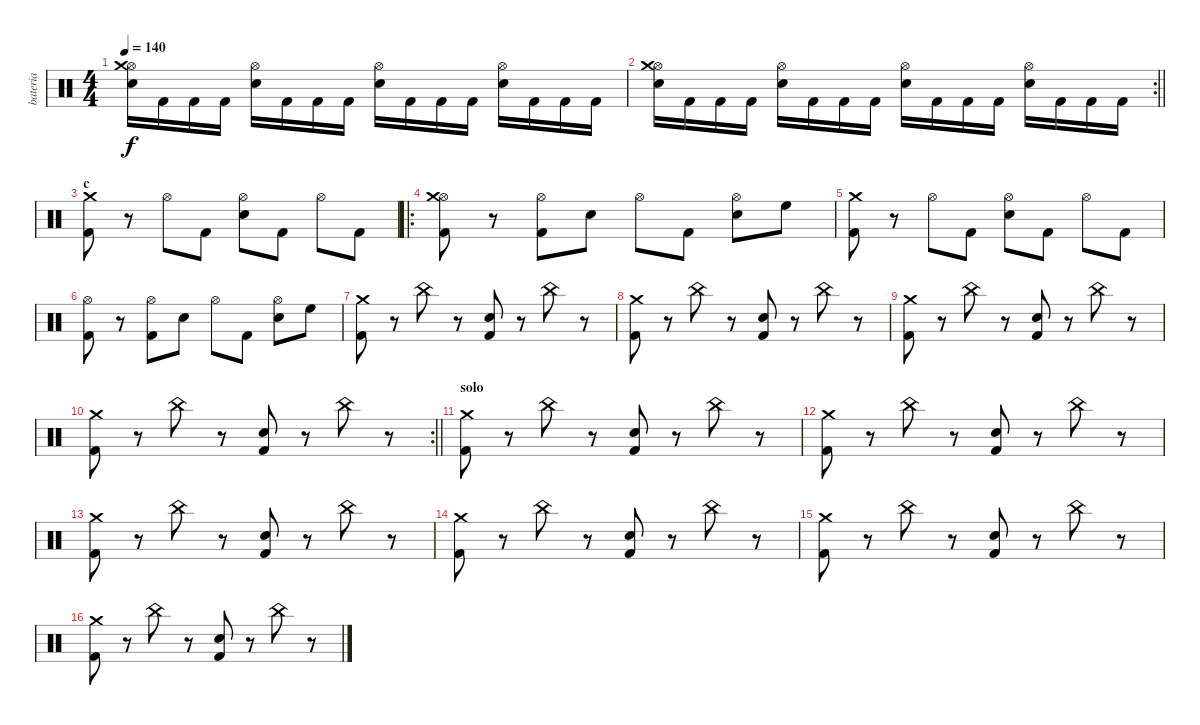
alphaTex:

\track ("bateria" "bateria") {mute instrument percussion}
\staff {score}
\articulation defaults
\ts (4 4)
\tempo 140
\clef neutral
\ks c
("Electric Snare (hit)" "Hi-Hat (open)" "Crash medium (hit)").16{dy f} "Kick (hit) 2".16 "Kick (hit) 2".16 "Kick (hit) 2".16 ("Electric Snare (hit)" "Hi-Hat (open)").16 "Kick (hit) 2".16 "Kick (hit) 2".16 "Kick (hit) 2".16 ("Electric Snare (hit)" "Hi-Hat (open)").16 "Kick (hit) 2".16 "Kick (hit) 2".16 "Kick (hit) 2".16 ("Electric Snare (hit)" "Hi-Hat (open)").16 "Kick (hit) 2".16 "Kick (hit) 2".16 "Kick (hit) 2".16 |
\rc 2
\barLineRight lightlight
("Electric Snare (hit)" "Hi-Hat (open)" "Crash medium (hit)").16 "Kick (hit) 2".16 "Kick (hit) 2".16 "Kick (hit) 2".16 ("Electric Snare (hit)" "Hi-Hat (open)").16 "Kick (hit) 2".16 "Kick (hit) 2".16 "Kick (hit) 2".16 ("Electric Snare (hit)" "Hi-Hat (open)").16 "Kick (hit) 2".16 "Kick (hit) 2".16 "Kick (hit) 2".16 ("Electric Snare (hit)" "Hi-Hat (open)").16 "Kick (hit) 2".16 "Kick (hit) 2".16 "Kick (hit) 2".16 |
\section ("" "c")
("Kick (hit) 2" "Crash medium (hit)").8 r.8 "Hi-Hat (open)".8 "Kick (hit) 2".8 ("Electric Snare (hit)" "Hi-Hat (open)").8 "Kick (hit) 2".8 "Hi-Hat (open)".8 "Kick (hit) 2".8 |
\ro
("Kick (hit) 2" "Hi-Hat (open)" "Crash medium (hit)").8 r.8 ("Kick (hit) 2" "Hi-Hat (open)").8 "Electric Snare (hit)".8 "Hi-Hat (open)".8 "Kick (hit) 2".8 ("Hi-Hat (open)" "Electric Snare (hit)").8 "High Floor Tom (hit)".8 |
("Kick (hit) 2" "Crash medium (hit)").8 r.8 "Hi-Hat (open)".8 "Kick (hit) 2".8 ("Electric Snare (hit)" "Hi-Hat (open)").8 "Kick (hit) 2".8 "Hi-Hat (open)".8 "Kick (hit) 2".8 |
("Kick (hit) 2" "Hi-Hat (open)").8 r.8 ("Kick (hit) 2" "Hi-Hat (open)").8 "Electric Snare (hit)".8 "Hi-Hat (open)".8 "Kick (hit) 2".8 ("Hi-Hat (open)" "Electric Snare (hit)").8 "High Floor Tom (hit)".8 |
("Kick (hit) 2" "Crash medium (hit)").8 r.8 "China (hit)".8 r.8 ("Kick (hit) 2" "Electric Snare (hit)").8 r.8 "China (hit)".8 r.8 |
("Kick (hit) 2" "Crash medium (hit)").8 r.8 "China (hit)".8 r.8 ("Kick (hit) 2" "Electric Snare (hit)").8 r.8 "China (hit)".8 r.8 |
("Kick (hit) 2" "Crash medium (hit)").8 r.8 "China (hit)".8 r.8 ("Kick (hit) 2" "Electric Snare (hit)").8 r.8 "China (hit)".8 r.8 |
\rc 2
\barLineRight lightlight
("Kick (hit) 2" "Crash medium (hit)").8 r.8 "China (hit)".8 r.8 ("Kick (hit) 2" "Electric Snare (hit)").8 r.8 "China (hit)".8 r.8 |
\section ("" "solo")
("Kick (hit) 2" "Crash medium (hit)").8 r.8 "China (hit)".8 r.8 ("Kick (hit) 2" "Electric Snare (hit)").8 r.8 "China (hit)".8 r.8 |
("Kick (hit) 2" "Crash medium (hit)").8 r.8 "China (hit)".8 r.8 ("Kick (hit) 2" "Electric Snare (hit)").8 r.8 "China (hit)".8 r.8 |
("Kick (hit) 2" "Crash medium (hit)").8 r.8 "China (hit)".8 r.8 ("Kick (hit) 2" "Electric Snare (hit)").8 r.8 "China (hit)".8 r.8 |
("Kick (hit) 2" "Crash medium (hit)").8 r.8 "China (hit)".8 r.8 ("Kick (hit) 2" "Electric Snare (hit)").8 r.8 "China (hit)".8 r.8 |
("Kick (hit) 2" "Crash medium (hit)").8 r.8 "China (hit)".8 r.8 ("Kick (hit) 2" "Electric Snare (hit)").8 r.8 "China (hit)".8 r.8 |
("Kick (hit) 2" "Crash medium (hit)").8 r.8 "China (hit)".8 r.8 ("Kick (hit) 2" "Electric Snare (hit)").8 r.8 "China (hit)".8 r.8
